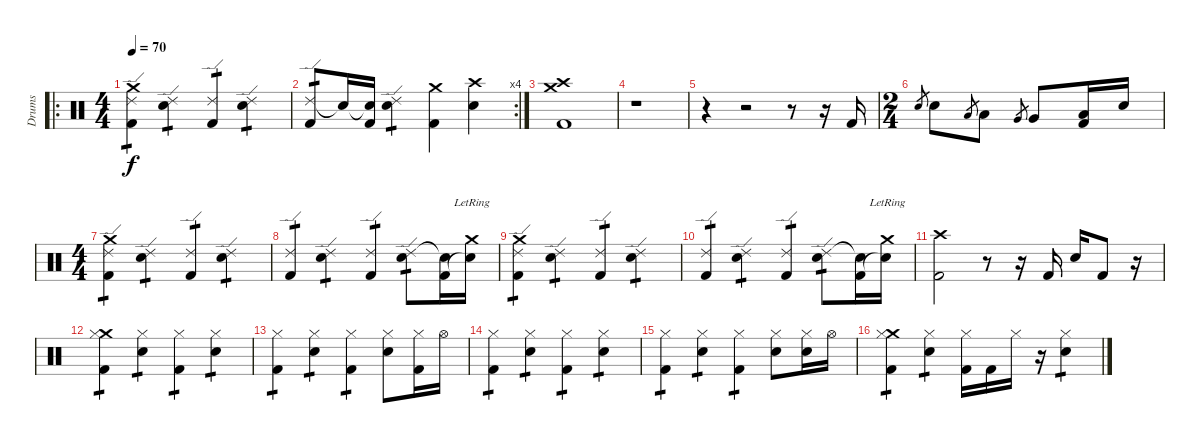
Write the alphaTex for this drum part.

\track ("Drums" "Drums") {instrument percussion}
\staff {score}
\articulation defaults
\ro
\ts (4 4)
\tempo 70
\clef neutral
\ks c
("Crash medium (hit)" "Ride (edge) 2" "Kick (hit) 2").4{tp 1 dy f} ("Ride (edge) 2" "Snare (hit) 2").4{tp 1} ("Ride (edge) 2" "Kick (hit) 2").4{tp 1} ("Ride (edge) 2" "Snare (hit) 2").4{tp 1} |
\rc 4
("Ride (edge) 2" "Kick (hit) 2").8{tp 1} "Snare (hit)"{t}.16 ("Snare (hit)"{t} "Kick (hit) 2").16 ("Ride (edge) 2" "Snare (hit) 2").4{tp 1} ("Crash medium (hit)" "Kick (hit) 2").4 ("Crash high (hit)" "Snare (hit) 2").4 |
("Crash medium (hit)" "Crash high (hit)" "Kick (hit) 2").1 |
r.1 |
r.4 r.2 r.8 r.16 "Kick (hit) 2".16 |
\ts (2 4)
"Snare (hit) 2".8{gr} "Snare (hit) 2".8 "Low Tom (hit)".8{gr} "Low Tom (hit)".8 "Very Low Tom (hit)".8{gr} "Very Low Tom (hit)".8 ("Low Floor Tom (hit)" "Kick (hit) 2").16 "Snare (hit) 2".16 |
\ts (4 4)
("Crash medium (hit)" "Ride (edge) 2" "Kick (hit) 2").4{tp 1} ("Ride (edge) 2" "Snare (hit) 2").4{tp 1} ("Ride (edge) 2" "Kick (hit) 2").4{tp 1} ("Ride (edge) 2" "Snare (hit) 2").4{tp 1} |
("Ride (edge) 2" "Kick (hit) 2").4{tp 1} ("Ride (edge) 2" "Snare (hit) 2").4{tp 1} ("Ride (edge) 2" "Kick (hit) 2").4{tp 1} ("Ride (edge) 2" "Snare (hit) 2").8{tp 1} ("Snare (hit)"{t} "Kick (hit) 2").16 ("Crash medium (hit)"{lr} "Snare (hit)"{t}).16 |
("Crash medium (hit)" "Ride (edge) 2" "Kick (hit) 2").4{tp 1} ("Ride (edge) 2" "Snare (hit) 2").4{tp 1} ("Ride (edge) 2" "Kick (hit) 2").4{tp 1} ("Ride (edge) 2" "Snare (hit) 2").4{tp 1} |
("Ride (edge) 2" "Kick (hit) 2").4{tp 1} ("Ride (edge) 2" "Snare (hit) 2").4{tp 1} ("Ride (edge) 2" "Kick (hit) 2").4{tp 1} ("Ride (edge) 2" "Snare (hit) 2").8{tp 1} ("Snare (hit)"{t} "Kick (hit) 2").16 ("Crash medium (hit)"{lr} "Snare (hit)"{t}).16 |
("Crash high (hit)" "Kick (hit) 2").2 r.8 r.16 "Kick (hit) 2".16 "Snare (hit) 2".16 "Kick (hit) 2".8 r.16 |
("Crash medium (hit)" "Hi-Hat (closed)" "Kick (hit) 2").4{tp 1} ("Hi-Hat (closed)" "Snare (hit) 2").4{tp 1} ("Hi-Hat (closed)" "Kick (hit) 2").4{tp 1} ("Hi-Hat (closed)" "Snare (hit) 2").4{tp 1} |
("Hi-Hat (closed)" "Kick (hit) 2").4{tp 1} ("Hi-Hat (closed)" "Snare (hit) 2").4{tp 1} ("Hi-Hat (closed)" "Kick (hit) 2").4{tp 1} ("Hi-Hat (closed)" "Snare (hit) 2").8 ("Hi-Hat (closed)" "Kick (hit) 2").16 "Hi-Hat (open)".16 |
("Hi-Hat (closed)" "Kick (hit) 2").4{tp 1} ("Hi-Hat (closed)" "Snare (hit) 2").4{tp 1} ("Hi-Hat (closed)" "Kick (hit) 2").4{tp 1} ("Hi-Hat (closed)" "Snare (hit) 2").4{tp 1} |
("Hi-Hat (closed)" "Kick (hit) 2").4{tp 1} ("Hi-Hat (closed)" "Snare (hit) 2").4{tp 1} ("Hi-Hat (closed)" "Kick (hit) 2").4{tp 1} ("Hi-Hat (closed)" "Snare (hit) 2").8 ("Hi-Hat (closed)" "Snare (hit) 2").16 "Hi-Hat (open)".16 |
("Crash medium (hit)" "Hi-Hat (closed)" "Kick (hit) 2").4{tp 1} ("Hi-Hat (closed)" "Snare (hit) 2").4{tp 1} ("Hi-Hat (closed)" "Kick (hit) 2").16 "Kick (hit) 2".16 "Hi-Hat (closed)".16 r.16 ("Hi-Hat (closed)" "Snare (hit) 2").4{tp 1}
